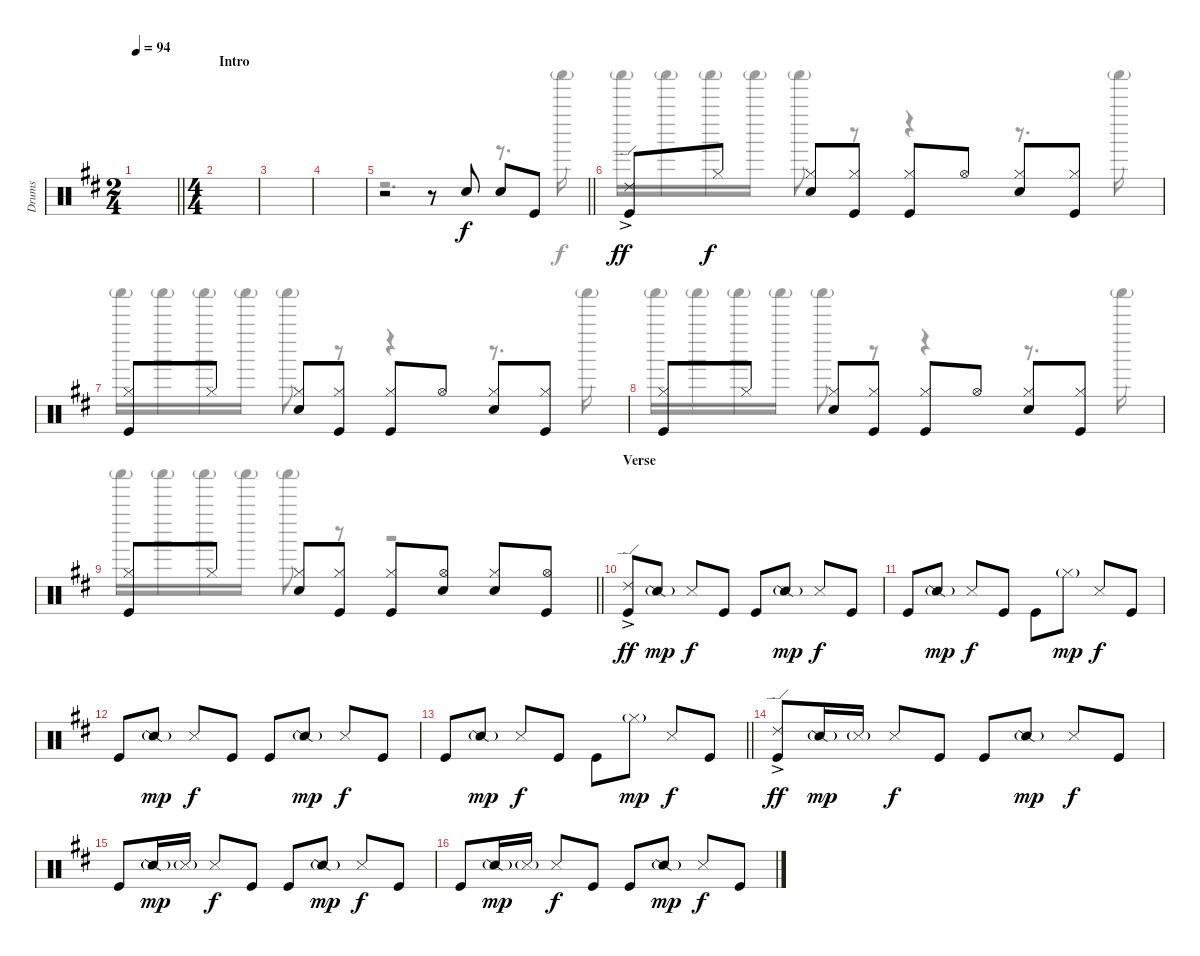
\track ("Drums" "Drums") {instrument percussion}
\staff {score}
\articulation defaults
\voice
\ts (2 4)
\tempo 94
\clef neutral
\barLineRight lightlight
\ks d
|
\ts (4 4)
\section ("" "Intro")
|
|
|
\barLineRight lightlight
r.2 r.8 "Snare (hit) 2".8 "Snare (hit) 2".8 "Kick (hit)".8 |
\section ("" "")
("Ride (edge) 2"{ac} "Kick (hit)").8{dy ff} "Hi-Hat (closed)".8{dy f} ("Hi-Hat (closed)" "Snare (hit) 2").8 ("Hi-Hat (closed)" "Kick (hit)").8 ("Hi-Hat (closed)" "Kick (hit)").8 "Hi-Hat (open)".8 ("Hi-Hat (closed)" "Snare (hit) 2").8 ("Hi-Hat (closed)" "Kick (hit)").8 |
("Hi-Hat (closed)" "Kick (hit)").8 "Hi-Hat (closed)".8 ("Hi-Hat (closed)" "Snare (hit) 2").8 ("Hi-Hat (closed)" "Kick (hit)").8 ("Hi-Hat (closed)" "Kick (hit)").8 "Hi-Hat (open)".8 ("Hi-Hat (closed)" "Snare (hit) 2").8 ("Hi-Hat (closed)" "Kick (hit)").8 |
("Hi-Hat (closed)" "Kick (hit)").8 "Hi-Hat (closed)".8 ("Hi-Hat (closed)" "Snare (hit) 2").8 ("Hi-Hat (closed)" "Kick (hit)").8 ("Hi-Hat (closed)" "Kick (hit)").8 "Hi-Hat (open)".8 ("Hi-Hat (closed)" "Snare (hit) 2").8 ("Hi-Hat (closed)" "Kick (hit)").8 |
\barLineRight lightlight
("Hi-Hat (closed)" "Kick (hit)").8 "Hi-Hat (closed)".8 ("Hi-Hat (closed)" "Snare (hit) 2").8 ("Hi-Hat (closed)" "Kick (hit)").8 ("Hi-Hat (closed)" "Kick (hit)").8 ("Hi-Hat (open)" "Snare (hit) 2").8 ("Hi-Hat (closed)" "Snare (hit) 2").8 ("Hi-Hat (open)" "Kick (hit)").8 |
\section ("" "Verse")
("Ride (edge) 2"{ac} "Kick (hit)").8{dy ff} "Snare (side stick) 2"{g}.8{dy mp} "Snare (side stick) 3".8{dy f} "Kick (hit)".8 "Kick (hit)".8 "Snare (side stick) 2"{g}.8{dy mp} "Snare (side stick) 3".8{dy f} "Kick (hit)".8 |
"Kick (hit)".8 "Snare (side stick) 2"{g}.8{dy mp} "Snare (side stick) 3".8{dy f} "Kick (hit)".8 "Kick (hit)".8 "Hi-Hat (closed)"{g}.8{dy mp} "Snare (side stick) 3".8{dy f} "Kick (hit)".8 |
"Kick (hit)".8 "Snare (side stick) 2"{g}.8{dy mp} "Snare (side stick) 3".8{dy f} "Kick (hit)".8 "Kick (hit)".8 "Snare (side stick) 2"{g}.8{dy mp} "Snare (side stick) 3".8{dy f} "Kick (hit)".8 |
\barLineRight lightlight "Kick (hit)".8 "Snare (side stick) 2"{g}.8{dy mp} "Snare (side stick) 3".8{dy f} "Kick (hit)".8 "Kick (hit)".8 "Hi-Hat (closed)"{g}.8{dy mp} "Snare (side stick) 3".8{dy f} "Kick (hit)".8
|
\section ("" "")
("Ride (edge) 2"{ac} "Kick (hit)").8{dy ff} "Snare (side stick) 2"{g}.16{dy mp} "Metronome (hit)"{g}.16 "Snare (side stick) 3".8{dy f} "Kick (hit)".8 "Kick (hit)".8 "Snare (side stick) 2"{g}.8{dy mp} "Snare (side stick) 3".8{dy f} "Kick (hit)".8 |
"Kick (hit)".8 "Snare (side stick) 2"{g}.16{dy mp} "Metronome (hit)"{g}.16 "Snare (side stick) 3".8{dy f} "Kick (hit)".8 "Kick (hit)".8 "Snare (side stick) 2"{g}.8{dy mp} "Snare (side stick) 3".8{dy f} "Kick (hit)".8 |
"Kick (hit)".8 "Snare (side stick) 2"{g}.16{dy mp} "Metronome (hit)"{g}.16 "Snare (side stick) 3".8{dy f} "Kick (hit)".8 "Kick (hit)".8 "Snare (side stick) 2"{g}.8{dy mp} "Snare (side stick) 3".8{dy f} "Kick (hit)".8
\voice
\clef neutral
\ottava regular
\simile none
\barLineRight lightlight
\ks d
|
|
|
|
\barLineRight lightlight
r.2{d} r.8{d} "Shaker (hit)"{g}.16 |
"Shaker (hit)"{g}.16 "Shaker (hit)"{g}.16 "Shaker (hit)"{g}.16 "Shaker (hit)"{g}.16 "Shaker (hit)"{g}.8 r.8 r.4 r.8{d} "Shaker (hit)"{g}.16 |
"Shaker (hit)"{g}.16 "Shaker (hit)"{g}.16 "Shaker (hit)"{g}.16 "Shaker (hit)"{g}.16 "Shaker (hit)"{g}.8 r.8 r.4 r.8{d} "Shaker (hit)"{g}.16 |
"Shaker (hit)"{g}.16 "Shaker (hit)"{g}.16 "Shaker (hit)"{g}.16 "Shaker (hit)"{g}.16 "Shaker (hit)"{g}.8 r.8 r.4 r.8{d} "Shaker (hit)"{g}.16 |
\barLineRight lightlight "Shaker (hit)"{g}.16 "Shaker (hit)"{g}.16 "Shaker (hit)"{g}.16 "Shaker (hit)"{g}.16 "Shaker (hit)"{g}.8
r.8 r.2 |
|
|
|
\barLineRight lightlight
|
|
|
